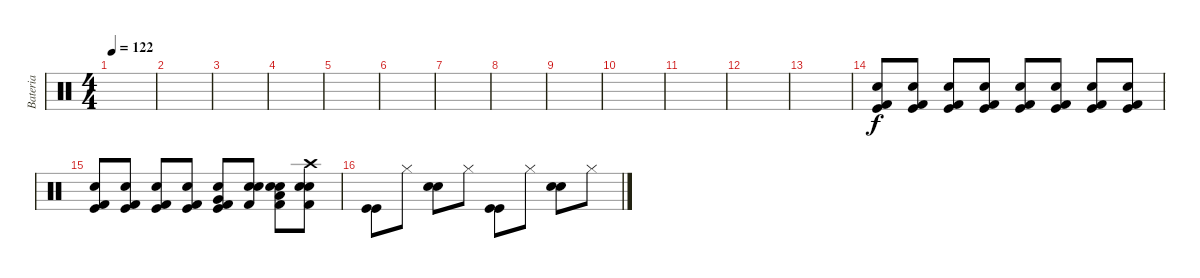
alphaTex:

\track ("Bateria" "Bateria") {instrument percussion}
\staff {score}
\articulation defaults
\ts (4 4)
\tempo 122
\clef neutral
\ks c
|
|
|
|
|
|
|
|
|
|
|
|
|
("Snare (hit) 2" "Kick (hit)" "Kick (hit) 2").8{volume 1} ("Snare (hit) 2" "Kick (hit)" "Kick (hit) 2").8{volume 11} ("Snare (hit) 2" "Kick (hit)" "Kick (hit) 2").8 ("Snare (hit) 2" "Kick (hit)" "Kick (hit) 2").8 ("Snare (hit) 2" "Kick (hit)" "Kick (hit) 2").8 ("Snare (hit) 2" "Kick (hit)" "Kick (hit) 2").8 ("Snare (hit) 2" "Kick (hit)" "Kick (hit) 2").8 ("Snare (hit) 2" "Kick (hit)" "Kick (hit) 2").8 |
("Snare (hit) 2" "Kick (hit)" "Kick (hit) 2").8 ("Snare (hit) 2" "Kick (hit)" "Kick (hit) 2").8 ("Snare (hit) 2" "Kick (hit)" "Kick (hit) 2").8 ("Snare (hit) 2" "Kick (hit)" "Kick (hit) 2").8 ("Very Low Tom (hit)" "Snare (hit) 2" "Kick (hit)" "Kick (hit) 2").8 ("Snare (hit) 2" "Snare (hit) 2" "Kick (hit) 2").8 ("Low Tom (hit)" "Snare (hit) 2" "Snare (hit) 2" "Kick (hit) 2").8 ("Crash high (hit)" "Snare (hit) 2" "Snare (hit) 2" "Kick (hit) 2").8 |
("Kick (hit)" "Kick (hit)").8 "Hi-Hat (closed)".8 ("Snare (hit) 2" "Snare (hit) 2").8 "Hi-Hat (closed)".8 ("Kick (hit)" "Kick (hit)").8 "Hi-Hat (closed)".8 ("Snare (hit) 2" "Snare (hit) 2").8 "Hi-Hat (closed)".8
